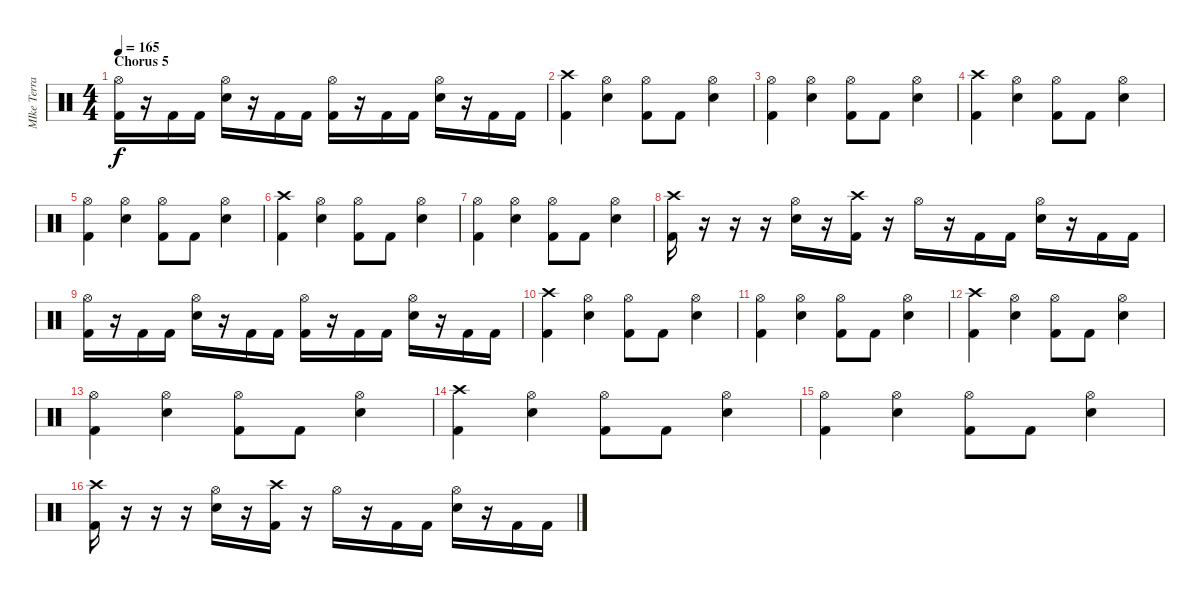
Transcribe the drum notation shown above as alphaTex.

\track ("MIke Terrana - Batteria" "MIke Terra") {instrument percussion}
\staff {score}
\articulation defaults
\ts (4 4)
\section ("" "Chorus 5")
\tempo 165
\clef neutral
\ks c
("Kick (hit) 2" "Hi-Hat (open)").16{dy f} r.16 "Kick (hit) 2".16 "Kick (hit) 2".16 ("Electric Snare (hit)" "Hi-Hat (open)").16 r.16 "Kick (hit) 2".16 "Kick (hit) 2".16 ("Kick (hit) 2" "Hi-Hat (open)").16 r.16 "Kick (hit) 2".16 "Kick (hit) 2".16 ("Electric Snare (hit)" "Hi-Hat (open)").16 r.16 "Kick (hit) 2".16 "Kick (hit) 2".16 |
("Kick (hit) 2" "Crash high (hit)").4 ("Electric Snare (hit)" "Hi-Hat (open)").4 ("Kick (hit) 2" "Hi-Hat (open)").8 "Kick (hit) 2".8 ("Electric Snare (hit)" "Hi-Hat (open)").4 |
("Kick (hit) 2" "Hi-Hat (open)").4 ("Electric Snare (hit)" "Hi-Hat (open)").4 ("Kick (hit) 2" "Hi-Hat (open)").8 "Kick (hit) 2".8 ("Electric Snare (hit)" "Hi-Hat (open)").4 |
("Kick (hit) 2" "Crash high (hit)").4 ("Electric Snare (hit)" "Hi-Hat (open)").4 ("Kick (hit) 2" "Hi-Hat (open)").8 "Kick (hit) 2".8 ("Electric Snare (hit)" "Hi-Hat (open)").4 |
("Kick (hit) 2" "Hi-Hat (open)").4 ("Electric Snare (hit)" "Hi-Hat (open)").4 ("Kick (hit) 2" "Hi-Hat (open)").8 "Kick (hit) 2".8 ("Electric Snare (hit)" "Hi-Hat (open)").4 |
("Kick (hit) 2" "Crash high (hit)").4 ("Electric Snare (hit)" "Hi-Hat (open)").4 ("Kick (hit) 2" "Hi-Hat (open)").8 "Kick (hit) 2".8 ("Electric Snare (hit)" "Hi-Hat (open)").4 |
("Kick (hit) 2" "Hi-Hat (open)").4 ("Electric Snare (hit)" "Hi-Hat (open)").4 ("Kick (hit) 2" "Hi-Hat (open)").8 "Kick (hit) 2".8 ("Electric Snare (hit)" "Hi-Hat (open)").4 |
("Kick (hit) 2" "Crash high (hit)").16 r.16 r.16 r.16 ("Electric Snare (hit)" "Hi-Hat (open)").16 r.16 ("Kick (hit) 2" "Crash high (hit)").16 r.16 "Hi-Hat (open)".16 r.16 "Kick (hit) 2".16 "Kick (hit) 2".16 ("Electric Snare (hit)" "Hi-Hat (open)").16 r.16 "Kick (hit) 2".16 "Kick (hit) 2".16 |
("Kick (hit) 2" "Hi-Hat (open)").16 r.16 "Kick (hit) 2".16 "Kick (hit) 2".16 ("Electric Snare (hit)" "Hi-Hat (open)").16 r.16 "Kick (hit) 2".16 "Kick (hit) 2".16 ("Kick (hit) 2" "Hi-Hat (open)").16 r.16 "Kick (hit) 2".16 "Kick (hit) 2".16 ("Electric Snare (hit)" "Hi-Hat (open)").16 r.16 "Kick (hit) 2".16 "Kick (hit) 2".16 |
("Kick (hit) 2" "Crash high (hit)").4 ("Electric Snare (hit)" "Hi-Hat (open)").4 ("Kick (hit) 2" "Hi-Hat (open)").8 "Kick (hit) 2".8 ("Electric Snare (hit)" "Hi-Hat (open)").4 |
("Kick (hit) 2" "Hi-Hat (open)").4 ("Electric Snare (hit)" "Hi-Hat (open)").4 ("Kick (hit) 2" "Hi-Hat (open)").8 "Kick (hit) 2".8 ("Electric Snare (hit)" "Hi-Hat (open)").4 |
("Kick (hit) 2" "Crash high (hit)").4 ("Electric Snare (hit)" "Hi-Hat (open)").4 ("Kick (hit) 2" "Hi-Hat (open)").8 "Kick (hit) 2".8 ("Electric Snare (hit)" "Hi-Hat (open)").4 |
("Kick (hit) 2" "Hi-Hat (open)").4 ("Electric Snare (hit)" "Hi-Hat (open)").4 ("Kick (hit) 2" "Hi-Hat (open)").8 "Kick (hit) 2".8 ("Electric Snare (hit)" "Hi-Hat (open)").4 |
("Kick (hit) 2" "Crash high (hit)").4 ("Electric Snare (hit)" "Hi-Hat (open)").4 ("Kick (hit) 2" "Hi-Hat (open)").8 "Kick (hit) 2".8 ("Electric Snare (hit)" "Hi-Hat (open)").4 |
("Kick (hit) 2" "Hi-Hat (open)").4 ("Electric Snare (hit)" "Hi-Hat (open)").4 ("Kick (hit) 2" "Hi-Hat (open)").8 "Kick (hit) 2".8 ("Electric Snare (hit)" "Hi-Hat (open)").4 |
("Kick (hit) 2" "Crash high (hit)").16 r.16 r.16 r.16 ("Electric Snare (hit)" "Hi-Hat (open)").16 r.16 ("Kick (hit) 2" "Crash high (hit)").16 r.16 "Hi-Hat (open)".16 r.16 "Kick (hit) 2".16 "Kick (hit) 2".16 ("Electric Snare (hit)" "Hi-Hat (open)").16 r.16 "Kick (hit) 2".16 "Kick (hit) 2".16
